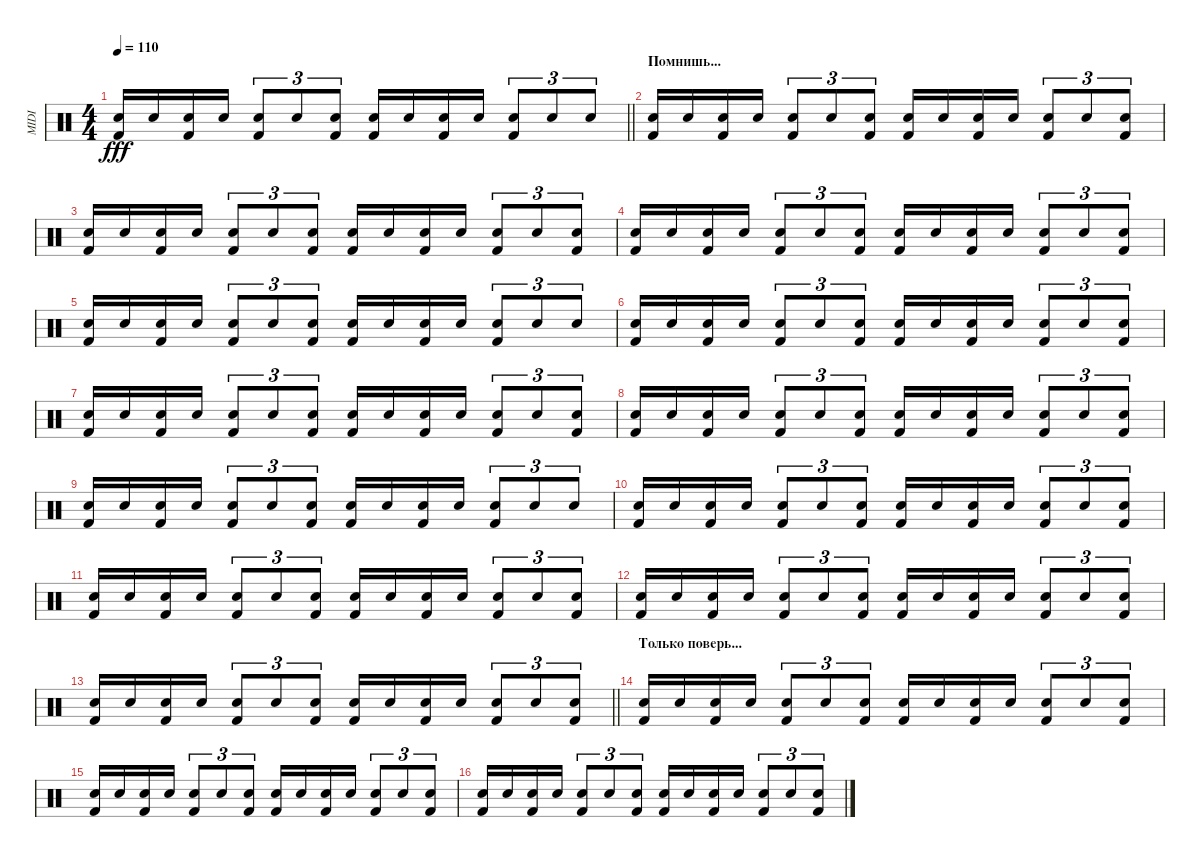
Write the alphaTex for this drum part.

\track ("MIDI" "MIDI") {instrument percussion}
\staff
\articulation defaults
\ts (4 4)
\tempo 110
\clef neutral
\barLineRight lightlight
\ks c
("Kick (hit) 2" "Snare (hit)").16{dy fff} "Snare (hit)".16 ("Kick (hit) 2" "Snare (hit)").16 "Snare (hit)".16 ("Kick (hit) 2" "Snare (hit)").8{tu (3 2)} "Snare (hit)".8{tu (3 2)} ("Kick (hit) 2" "Snare (hit)").8{tu (3 2)} ("Kick (hit) 2" "Snare (hit)").16 "Snare (hit)".16 ("Kick (hit) 2" "Snare (hit)").16 "Snare (hit)".16 ("Kick (hit) 2" "Snare (hit)").8{tu (3 2)} "Snare (hit)".8{tu (3 2)} "Snare (hit)".8{tu (3 2)} |
\section ("" "Помнишь...")
("Kick (hit) 2" "Snare (hit)").16 "Snare (hit)".16 ("Kick (hit) 2" "Snare (hit)").16 "Snare (hit)".16 ("Kick (hit) 2" "Snare (hit)").8{tu (3 2)} "Snare (hit)".8{tu (3 2)} ("Kick (hit) 2" "Snare (hit)").8{tu (3 2)} ("Kick (hit) 2" "Snare (hit)").16 "Snare (hit)".16 ("Kick (hit) 2" "Snare (hit)").16 "Snare (hit)".16 ("Kick (hit) 2" "Snare (hit)").8{tu (3 2)} "Snare (hit)".8{tu (3 2)} ("Kick (hit) 2" "Snare (hit)").8{tu (3 2)} |
("Kick (hit) 2" "Snare (hit)").16 "Snare (hit)".16 ("Kick (hit) 2" "Snare (hit)").16 "Snare (hit)".16 ("Kick (hit) 2" "Snare (hit)").8{tu (3 2)} "Snare (hit)".8{tu (3 2)} ("Kick (hit) 2" "Snare (hit)").8{tu (3 2)} ("Kick (hit) 2" "Snare (hit)").16 "Snare (hit)".16 ("Kick (hit) 2" "Snare (hit)").16 "Snare (hit)".16 ("Kick (hit) 2" "Snare (hit)").8{tu (3 2)} "Snare (hit)".8{tu (3 2)} ("Kick (hit) 2" "Snare (hit)").8{tu (3 2)} |
("Kick (hit) 2" "Snare (hit)").16 "Snare (hit)".16 ("Kick (hit) 2" "Snare (hit)").16 "Snare (hit)".16 ("Kick (hit) 2" "Snare (hit)").8{tu (3 2)} "Snare (hit)".8{tu (3 2)} ("Kick (hit) 2" "Snare (hit)").8{tu (3 2)} ("Kick (hit) 2" "Snare (hit)").16 "Snare (hit)".16 ("Kick (hit) 2" "Snare (hit)").16 "Snare (hit)".16 ("Kick (hit) 2" "Snare (hit)").8{tu (3 2)} "Snare (hit)".8{tu (3 2)} ("Kick (hit) 2" "Snare (hit)").8{tu (3 2)} |
("Kick (hit) 2" "Snare (hit)").16 "Snare (hit)".16 ("Kick (hit) 2" "Snare (hit)").16 "Snare (hit)".16 ("Kick (hit) 2" "Snare (hit)").8{tu (3 2)} "Snare (hit)".8{tu (3 2)} ("Kick (hit) 2" "Snare (hit)").8{tu (3 2)} ("Kick (hit) 2" "Snare (hit)").16 "Snare (hit)".16 ("Kick (hit) 2" "Snare (hit)").16 "Snare (hit)".16 ("Kick (hit) 2" "Snare (hit)").8{tu (3 2)} "Snare (hit)".8{tu (3 2)} "Snare (hit)".8{tu (3 2)} |
("Kick (hit) 2" "Snare (hit)").16 "Snare (hit)".16 ("Kick (hit) 2" "Snare (hit)").16 "Snare (hit)".16 ("Kick (hit) 2" "Snare (hit)").8{tu (3 2)} "Snare (hit)".8{tu (3 2)} ("Kick (hit) 2" "Snare (hit)").8{tu (3 2)} ("Kick (hit) 2" "Snare (hit)").16 "Snare (hit)".16 ("Kick (hit) 2" "Snare (hit)").16 "Snare (hit)".16 ("Kick (hit) 2" "Snare (hit)").8{tu (3 2)} "Snare (hit)".8{tu (3 2)} ("Kick (hit) 2" "Snare (hit)").8{tu (3 2)} |
("Kick (hit) 2" "Snare (hit)").16 "Snare (hit)".16 ("Kick (hit) 2" "Snare (hit)").16 "Snare (hit)".16 ("Kick (hit) 2" "Snare (hit)").8{tu (3 2)} "Snare (hit)".8{tu (3 2)} ("Kick (hit) 2" "Snare (hit)").8{tu (3 2)} ("Kick (hit) 2" "Snare (hit)").16 "Snare (hit)".16 ("Kick (hit) 2" "Snare (hit)").16 "Snare (hit)".16 ("Kick (hit) 2" "Snare (hit)").8{tu (3 2)} "Snare (hit)".8{tu (3 2)} ("Kick (hit) 2" "Snare (hit)").8{tu (3 2)} |
("Kick (hit) 2" "Snare (hit)").16 "Snare (hit)".16 ("Kick (hit) 2" "Snare (hit)").16 "Snare (hit)".16 ("Kick (hit) 2" "Snare (hit)").8{tu (3 2)} "Snare (hit)".8{tu (3 2)} ("Kick (hit) 2" "Snare (hit)").8{tu (3 2)} ("Kick (hit) 2" "Snare (hit)").16 "Snare (hit)".16 ("Kick (hit) 2" "Snare (hit)").16 "Snare (hit)".16 ("Kick (hit) 2" "Snare (hit)").8{tu (3 2)} "Snare (hit)".8{tu (3 2)} ("Kick (hit) 2" "Snare (hit)").8{tu (3 2)} |
("Kick (hit) 2" "Snare (hit)").16 "Snare (hit)".16 ("Kick (hit) 2" "Snare (hit)").16 "Snare (hit)".16 ("Kick (hit) 2" "Snare (hit)").8{tu (3 2)} "Snare (hit)".8{tu (3 2)} ("Kick (hit) 2" "Snare (hit)").8{tu (3 2)} ("Kick (hit) 2" "Snare (hit)").16 "Snare (hit)".16 ("Kick (hit) 2" "Snare (hit)").16 "Snare (hit)".16 ("Kick (hit) 2" "Snare (hit)").8{tu (3 2)} "Snare (hit)".8{tu (3 2)} "Snare (hit)".8{tu (3 2)} |
("Kick (hit) 2" "Snare (hit)").16 "Snare (hit)".16 ("Kick (hit) 2" "Snare (hit)").16 "Snare (hit)".16 ("Kick (hit) 2" "Snare (hit)").8{tu (3 2)} "Snare (hit)".8{tu (3 2)} ("Kick (hit) 2" "Snare (hit)").8{tu (3 2)} ("Kick (hit) 2" "Snare (hit)").16 "Snare (hit)".16 ("Kick (hit) 2" "Snare (hit)").16 "Snare (hit)".16 ("Kick (hit) 2" "Snare (hit)").8{tu (3 2)} "Snare (hit)".8{tu (3 2)} ("Kick (hit) 2" "Snare (hit)").8{tu (3 2)} |
("Kick (hit) 2" "Snare (hit)").16 "Snare (hit)".16 ("Kick (hit) 2" "Snare (hit)").16 "Snare (hit)".16 ("Kick (hit) 2" "Snare (hit)").8{tu (3 2)} "Snare (hit)".8{tu (3 2)} ("Kick (hit) 2" "Snare (hit)").8{tu (3 2)} ("Kick (hit) 2" "Snare (hit)").16 "Snare (hit)".16 ("Kick (hit) 2" "Snare (hit)").16 "Snare (hit)".16 ("Kick (hit) 2" "Snare (hit)").8{tu (3 2)} "Snare (hit)".8{tu (3 2)} ("Kick (hit) 2" "Snare (hit)").8{tu (3 2)} |
("Kick (hit) 2" "Snare (hit)").16 "Snare (hit)".16 ("Kick (hit) 2" "Snare (hit)").16 "Snare (hit)".16 ("Kick (hit) 2" "Snare (hit)").8{tu (3 2)} "Snare (hit)".8{tu (3 2)} ("Kick (hit) 2" "Snare (hit)").8{tu (3 2)} ("Kick (hit) 2" "Snare (hit)").16 "Snare (hit)".16 ("Kick (hit) 2" "Snare (hit)").16 "Snare (hit)".16 ("Kick (hit) 2" "Snare (hit)").8{tu (3 2)} "Snare (hit)".8{tu (3 2)} ("Kick (hit) 2" "Snare (hit)").8{tu (3 2)} |
\barLineRight lightlight
("Kick (hit) 2" "Snare (hit)").16 "Snare (hit)".16 ("Kick (hit) 2" "Snare (hit)").16 "Snare (hit)".16 ("Kick (hit) 2" "Snare (hit)").8{tu (3 2)} "Snare (hit)".8{tu (3 2)} ("Kick (hit) 2" "Snare (hit)").8{tu (3 2)} ("Kick (hit) 2" "Snare (hit)").16 "Snare (hit)".16 ("Kick (hit) 2" "Snare (hit)").16 "Snare (hit)".16 ("Kick (hit) 2" "Snare (hit)").8{tu (3 2)} "Snare (hit)".8{tu (3 2)} ("Kick (hit) 2" "Snare (hit)").8{tu (3 2)} |
\section ("" "Только поверь...")
("Kick (hit) 2" "Snare (hit)").16 "Snare (hit)".16 ("Kick (hit) 2" "Snare (hit)").16 "Snare (hit)".16 ("Kick (hit) 2" "Snare (hit)").8{tu (3 2)} "Snare (hit)".8{tu (3 2)} ("Kick (hit) 2" "Snare (hit)").8{tu (3 2)} ("Kick (hit) 2" "Snare (hit)").16 "Snare (hit)".16 ("Kick (hit) 2" "Snare (hit)").16 "Snare (hit)".16 ("Kick (hit) 2" "Snare (hit)").8{tu (3 2)} "Snare (hit)".8{tu (3 2)} ("Kick (hit) 2" "Snare (hit)").8{tu (3 2)} |
("Kick (hit) 2" "Snare (hit)").16 "Snare (hit)".16 ("Kick (hit) 2" "Snare (hit)").16 "Snare (hit)".16 ("Kick (hit) 2" "Snare (hit)").8{tu (3 2)} "Snare (hit)".8{tu (3 2)} ("Kick (hit) 2" "Snare (hit)").8{tu (3 2)} ("Kick (hit) 2" "Snare (hit)").16 "Snare (hit)".16 ("Kick (hit) 2" "Snare (hit)").16 "Snare (hit)".16 ("Kick (hit) 2" "Snare (hit)").8{tu (3 2)} "Snare (hit)".8{tu (3 2)} ("Kick (hit) 2" "Snare (hit)").8{tu (3 2)} |
("Kick (hit) 2" "Snare (hit)").16 "Snare (hit)".16 ("Kick (hit) 2" "Snare (hit)").16 "Snare (hit)".16 ("Kick (hit) 2" "Snare (hit)").8{tu (3 2)} "Snare (hit)".8{tu (3 2)} ("Kick (hit) 2" "Snare (hit)").8{tu (3 2)} ("Kick (hit) 2" "Snare (hit)").16 "Snare (hit)".16 ("Kick (hit) 2" "Snare (hit)").16 "Snare (hit)".16 ("Kick (hit) 2" "Snare (hit)").8{tu (3 2)} "Snare (hit)".8{tu (3 2)} ("Kick (hit) 2" "Snare (hit)").8{tu (3 2)}
